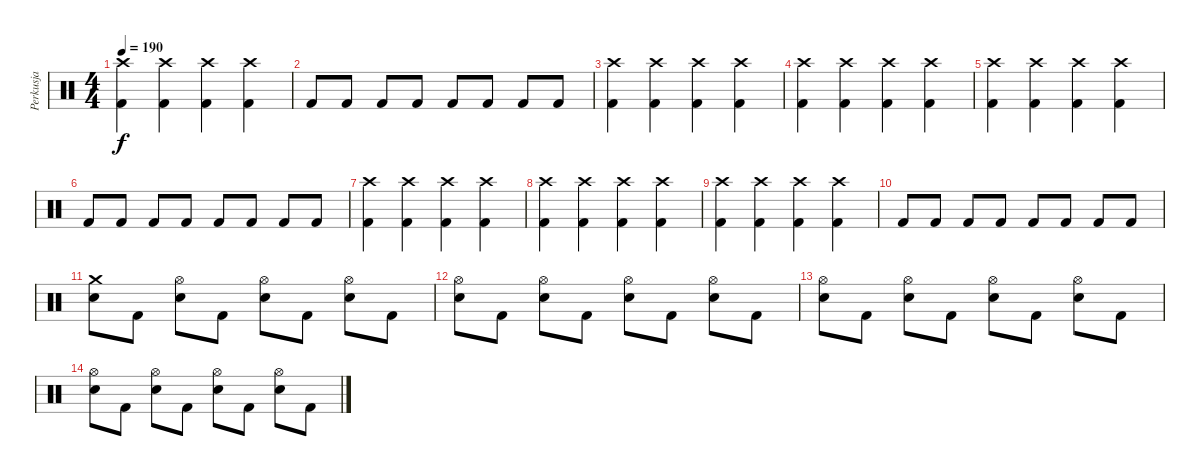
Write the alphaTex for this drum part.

\track ("Perkusja" "Perkusja") {instrument percussion}
\staff {score}
\articulation defaults
\ts (4 4)
\tempo 190
\clef neutral
\ks c
("Crash high (hit)" "Kick (hit) 2").4{dy f} ("Crash high (hit)" "Kick (hit) 2").4 ("Crash high (hit)" "Kick (hit) 2").4 ("Crash high (hit)" "Kick (hit) 2").4 |
"Kick (hit) 2".8 "Kick (hit) 2".8 "Kick (hit) 2".8 "Kick (hit) 2".8 "Kick (hit) 2".8 "Kick (hit) 2".8 "Kick (hit) 2".8 "Kick (hit) 2".8 |
("Crash high (hit)" "Kick (hit) 2").4 ("Crash high (hit)" "Kick (hit) 2").4 ("Crash high (hit)" "Kick (hit) 2").4 ("Crash high (hit)" "Kick (hit) 2").4 |
("Crash high (hit)" "Kick (hit) 2").4 ("Crash high (hit)" "Kick (hit) 2").4 ("Crash high (hit)" "Kick (hit) 2").4 ("Crash high (hit)" "Kick (hit) 2").4 |
("Crash high (hit)" "Kick (hit) 2").4 ("Crash high (hit)" "Kick (hit) 2").4 ("Crash high (hit)" "Kick (hit) 2").4 ("Crash high (hit)" "Kick (hit) 2").4 |
"Kick (hit) 2".8 "Kick (hit) 2".8 "Kick (hit) 2".8 "Kick (hit) 2".8 "Kick (hit) 2".8 "Kick (hit) 2".8 "Kick (hit) 2".8 "Kick (hit) 2".8 |
("Crash high (hit)" "Kick (hit) 2").4 ("Crash high (hit)" "Kick (hit) 2").4 ("Crash high (hit)" "Kick (hit) 2").4 ("Crash high (hit)" "Kick (hit) 2").4 |
("Crash high (hit)" "Kick (hit) 2").4 ("Crash high (hit)" "Kick (hit) 2").4 ("Crash high (hit)" "Kick (hit) 2").4 ("Crash high (hit)" "Kick (hit) 2").4 |
("Crash high (hit)" "Kick (hit) 2").4 ("Crash high (hit)" "Kick (hit) 2").4 ("Crash high (hit)" "Kick (hit) 2").4 ("Crash high (hit)" "Kick (hit) 2").4 |
"Kick (hit) 2".8 "Kick (hit) 2".8 "Kick (hit) 2".8 "Kick (hit) 2".8 "Kick (hit) 2".8 "Kick (hit) 2".8 "Kick (hit) 2".8 "Kick (hit) 2".8 |
("Crash medium (hit)" "Electric Snare (hit)").8 "Kick (hit) 2".8 ("Hi-Hat (open)" "Electric Snare (hit)").8 "Kick (hit) 2".8 ("Hi-Hat (open)" "Electric Snare (hit)").8 "Kick (hit) 2".8 ("Hi-Hat (open)" "Electric Snare (hit)").8 "Kick (hit) 2".8 |
("Hi-Hat (open)" "Electric Snare (hit)").8 "Kick (hit) 2".8 ("Hi-Hat (open)" "Electric Snare (hit)").8 "Kick (hit) 2".8 ("Hi-Hat (open)" "Electric Snare (hit)").8 "Kick (hit) 2".8 ("Hi-Hat (open)" "Electric Snare (hit)").8 "Kick (hit) 2".8 |
("Hi-Hat (open)" "Electric Snare (hit)").8 "Kick (hit) 2".8 ("Hi-Hat (open)" "Electric Snare (hit)").8 "Kick (hit) 2".8 ("Hi-Hat (open)" "Electric Snare (hit)").8 "Kick (hit) 2".8 ("Hi-Hat (open)" "Electric Snare (hit)").8 "Kick (hit) 2".8 |
("Hi-Hat (open)" "Electric Snare (hit)").8 "Kick (hit) 2".8 ("Hi-Hat (open)" "Electric Snare (hit)").8 "Kick (hit) 2".8 ("Hi-Hat (open)" "Electric Snare (hit)").8 "Kick (hit) 2".8 ("Hi-Hat (open)" "Electric Snare (hit)").8 "Kick (hit) 2".8
